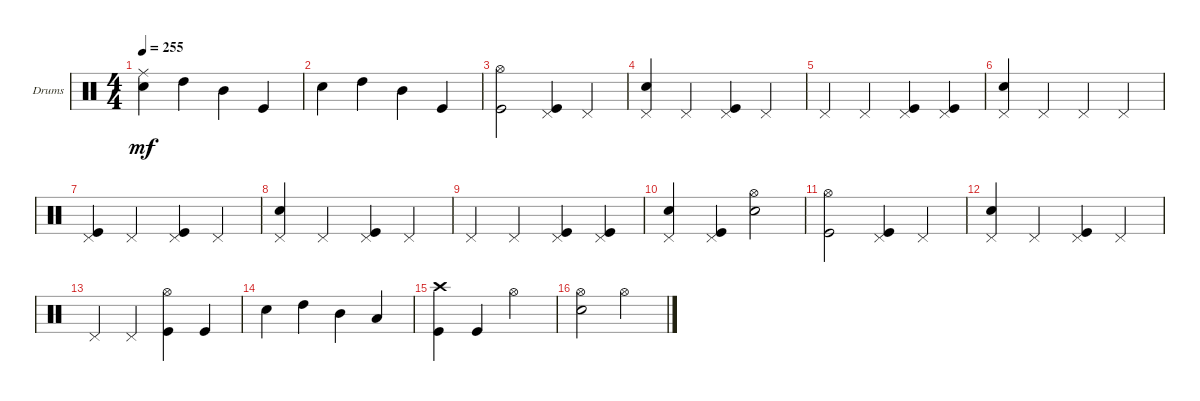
\bracketExtendMode groupsimilarinstruments
\firstSystemTrackNameOrientation horizontal
\otherSystemsTrackNameOrientation horizontal
\track ("Drums" "Drums") {instrument percussion}
\staff {score}
\articulation defaults
\ts (4 4)
\tempo 255
\clef neutral
\ks c
("Snare (hit) 2" "Ride (middle)").4{dy mf} "High Tom (hit)".4 "Mid Tom (hit)".4 "Kick (hit)".4 |
"Snare (hit) 2".4 "High Tom (hit)".4 "Mid Tom (hit)".4 "Kick (hit)".4 |
("Kick (hit)" "Hi-Hat (open)").2 ("Kick (hit)" "Pedal Hi-Hat (hit)").4 "Pedal Hi-Hat (hit)".4 |
("Snare (hit) 2" "Pedal Hi-Hat (hit)").4 "Pedal Hi-Hat (hit)".4 ("Kick (hit)" "Pedal Hi-Hat (hit)").4 "Pedal Hi-Hat (hit)".4 |
"Pedal Hi-Hat (hit)".4 "Pedal Hi-Hat (hit)".4 ("Kick (hit)" "Pedal Hi-Hat (hit)").4 ("Kick (hit)" "Pedal Hi-Hat (hit)").4 |
("Snare (hit) 2" "Pedal Hi-Hat (hit)").4 "Pedal Hi-Hat (hit)".4 "Pedal Hi-Hat (hit)".4 "Pedal Hi-Hat (hit)".4 |
("Kick (hit)" "Pedal Hi-Hat (hit)").4 "Pedal Hi-Hat (hit)".4 ("Kick (hit)" "Pedal Hi-Hat (hit)").4 "Pedal Hi-Hat (hit)".4 |
("Snare (hit) 2" "Pedal Hi-Hat (hit)").4 "Pedal Hi-Hat (hit)".4 ("Kick (hit)" "Pedal Hi-Hat (hit)").4 "Pedal Hi-Hat (hit)".4 |
"Pedal Hi-Hat (hit)".4 "Pedal Hi-Hat (hit)".4 ("Kick (hit)" "Pedal Hi-Hat (hit)").4 ("Kick (hit)" "Pedal Hi-Hat (hit)").4 |
("Snare (hit) 2" "Pedal Hi-Hat (hit)").4 ("Kick (hit)" "Pedal Hi-Hat (hit)").4 ("Snare (hit) 2" "Hi-Hat (open)").2 |
("Kick (hit)" "Hi-Hat (open)").2 ("Kick (hit)" "Pedal Hi-Hat (hit)").4 "Pedal Hi-Hat (hit)".4 |
("Snare (hit) 2" "Pedal Hi-Hat (hit)").4 "Pedal Hi-Hat (hit)".4 ("Kick (hit)" "Pedal Hi-Hat (hit)").4 "Pedal Hi-Hat (hit)".4 |
"Pedal Hi-Hat (hit)".4 "Pedal Hi-Hat (hit)".4 ("Kick (hit)" "Hi-Hat (open)").4 "Kick (hit)".4 |
"Snare (hit) 2".4 "High Tom (hit)".4 "Mid Tom (hit)".4 "Low Tom (hit)".4 |
("Kick (hit)" "Crash high (hit)").4 "Kick (hit)".4 "Hi-Hat (open)".2 |
("Snare (hit) 2" "Hi-Hat (open)").2 "Hi-Hat (open)".2
